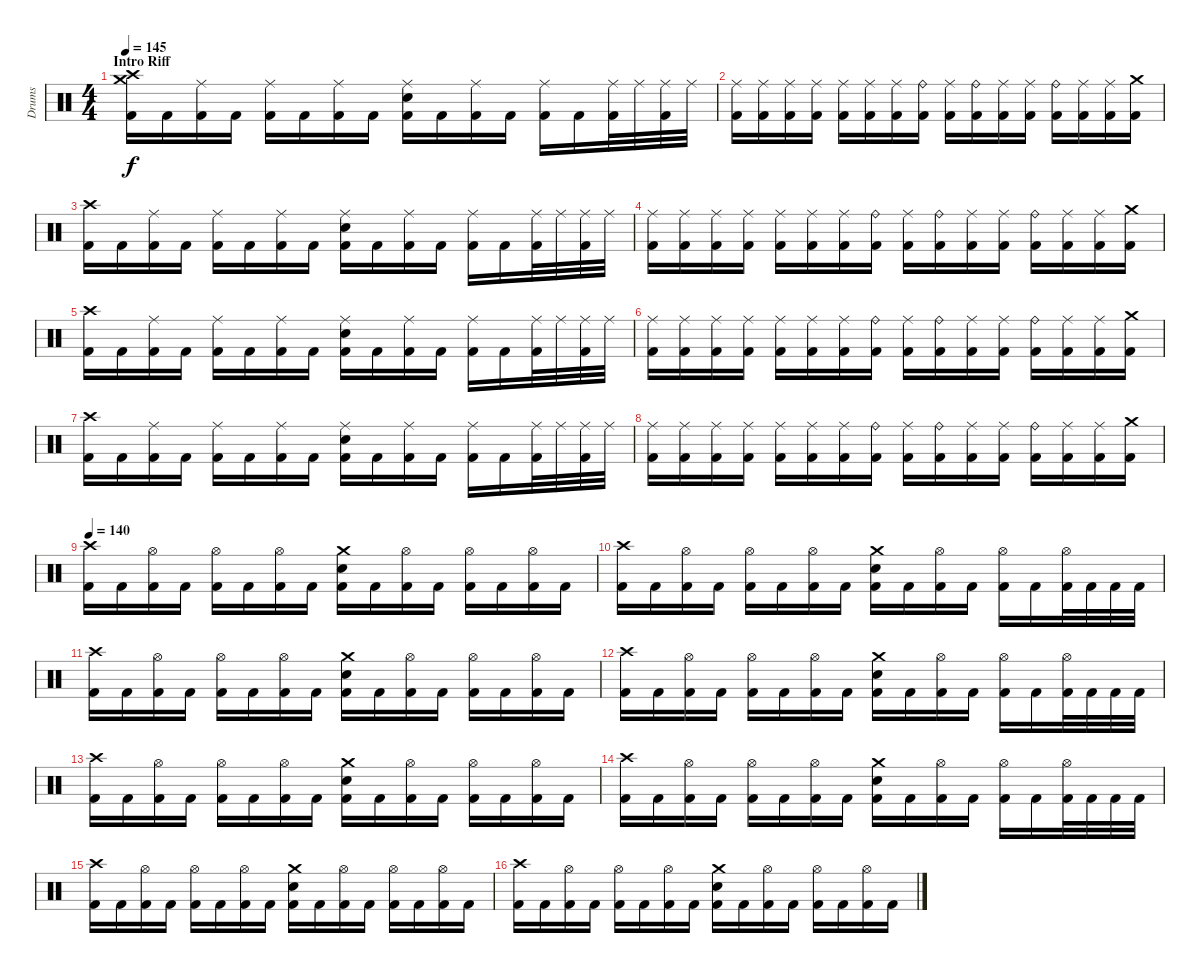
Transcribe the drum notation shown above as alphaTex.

\track ("Drums" "Drums") {instrument percussion}
\staff {score}
\articulation defaults
\ts (4 4)
\section ("" "Intro Riff")
\tempo 145
\clef neutral
\ks c
("Crash medium (hit)" "Crash high (hit)" "Kick (hit) 2").16{dy f} "Kick (hit) 2".16 ("Ride (middle)" "Kick (hit) 2").16 "Kick (hit) 2".16 ("Ride (middle)" "Kick (hit) 2").16 "Kick (hit) 2".16 ("Ride (middle)" "Kick (hit) 2").16 "Kick (hit) 2".16 ("Ride (middle)" "Electric Snare (hit)" "Kick (hit) 2").16 "Kick (hit) 2".16 ("Ride (middle)" "Kick (hit) 2").16 "Kick (hit) 2".16 ("Ride (middle)" "Kick (hit) 2").16 "Kick (hit) 2".16 ("Ride (middle)" "Kick (hit) 2").32 "Ride (middle)".32 ("Ride (middle)" "Kick (hit) 2").32 "Ride (middle)".32 |
("Ride (middle)" "Kick (hit) 2").16 ("Ride (middle)" "Kick (hit) 2").16 ("Ride (middle)" "Kick (hit) 2").16 ("Ride (middle)" "Kick (hit) 2").16 ("Ride (middle)" "Kick (hit) 2").16 ("Ride (middle)" "Kick (hit) 2").16 ("Ride (middle)" "Kick (hit) 2").16 ("Ride (bell)" "Kick (hit) 2").16 ("Ride (middle)" "Kick (hit) 2").16 ("Ride (bell)" "Kick (hit) 2").16 ("Ride (middle)" "Kick (hit) 2").16 ("Ride (middle)" "Kick (hit) 2").16 ("Ride (bell)" "Kick (hit) 2").16 ("Ride (middle)" "Kick (hit) 2").16 ("Ride (middle)" "Kick (hit) 2").16 ("Crash medium (hit)" "Kick (hit) 2").16 |
("Crash high (hit)" "Kick (hit) 2").16 "Kick (hit) 2".16 ("Ride (middle)" "Kick (hit) 2").16 "Kick (hit) 2".16 ("Ride (middle)" "Kick (hit) 2").16 "Kick (hit) 2".16 ("Ride (middle)" "Kick (hit) 2").16 "Kick (hit) 2".16 ("Ride (middle)" "Electric Snare (hit)" "Kick (hit) 2").16 "Kick (hit) 2".16 ("Ride (middle)" "Kick (hit) 2").16 "Kick (hit) 2".16 ("Ride (middle)" "Kick (hit) 2").16 "Kick (hit) 2".16 ("Ride (middle)" "Kick (hit) 2").32 "Ride (middle)".32 ("Ride (middle)" "Kick (hit) 2").32 "Ride (middle)".32 |
("Ride (middle)" "Kick (hit) 2").16 ("Ride (middle)" "Kick (hit) 2").16 ("Ride (middle)" "Kick (hit) 2").16 ("Ride (middle)" "Kick (hit) 2").16 ("Ride (middle)" "Kick (hit) 2").16 ("Ride (middle)" "Kick (hit) 2").16 ("Ride (middle)" "Kick (hit) 2").16 ("Ride (bell)" "Kick (hit) 2").16 ("Ride (middle)" "Kick (hit) 2").16 ("Ride (bell)" "Kick (hit) 2").16 ("Ride (middle)" "Kick (hit) 2").16 ("Ride (middle)" "Kick (hit) 2").16 ("Ride (bell)" "Kick (hit) 2").16 ("Ride (middle)" "Kick (hit) 2").16 ("Ride (middle)" "Kick (hit) 2").16 ("Crash medium (hit)" "Kick (hit) 2").16 |
("Crash high (hit)" "Kick (hit) 2").16 "Kick (hit) 2".16 ("Ride (middle)" "Kick (hit) 2").16 "Kick (hit) 2".16 ("Ride (middle)" "Kick (hit) 2").16 "Kick (hit) 2".16 ("Ride (middle)" "Kick (hit) 2").16 "Kick (hit) 2".16 ("Ride (middle)" "Electric Snare (hit)" "Kick (hit) 2").16 "Kick (hit) 2".16 ("Ride (middle)" "Kick (hit) 2").16 "Kick (hit) 2".16 ("Ride (middle)" "Kick (hit) 2").16 "Kick (hit) 2".16 ("Ride (middle)" "Kick (hit) 2").32 "Ride (middle)".32 ("Ride (middle)" "Kick (hit) 2").32 "Ride (middle)".32 |
("Ride (middle)" "Kick (hit) 2").16 ("Ride (middle)" "Kick (hit) 2").16 ("Ride (middle)" "Kick (hit) 2").16 ("Ride (middle)" "Kick (hit) 2").16 ("Ride (middle)" "Kick (hit) 2").16 ("Ride (middle)" "Kick (hit) 2").16 ("Ride (middle)" "Kick (hit) 2").16 ("Ride (bell)" "Kick (hit) 2").16 ("Ride (middle)" "Kick (hit) 2").16 ("Ride (bell)" "Kick (hit) 2").16 ("Ride (middle)" "Kick (hit) 2").16 ("Ride (middle)" "Kick (hit) 2").16 ("Ride (bell)" "Kick (hit) 2").16 ("Ride (middle)" "Kick (hit) 2").16 ("Ride (middle)" "Kick (hit) 2").16 ("Crash medium (hit)" "Kick (hit) 2").16 |
("Crash high (hit)" "Kick (hit) 2").16 "Kick (hit) 2".16 ("Ride (middle)" "Kick (hit) 2").16 "Kick (hit) 2".16 ("Ride (middle)" "Kick (hit) 2").16 "Kick (hit) 2".16 ("Ride (middle)" "Kick (hit) 2").16 "Kick (hit) 2".16 ("Ride (middle)" "Electric Snare (hit)" "Kick (hit) 2").16 "Kick (hit) 2".16 ("Ride (middle)" "Kick (hit) 2").16 "Kick (hit) 2".16 ("Ride (middle)" "Kick (hit) 2").16 "Kick (hit) 2".16 ("Ride (middle)" "Kick (hit) 2").32 "Ride (middle)".32 ("Ride (middle)" "Kick (hit) 2").32 "Ride (middle)".32 |
("Ride (middle)" "Kick (hit) 2").16 ("Ride (middle)" "Kick (hit) 2").16 ("Ride (middle)" "Kick (hit) 2").16 ("Ride (middle)" "Kick (hit) 2").16 ("Ride (middle)" "Kick (hit) 2").16 ("Ride (middle)" "Kick (hit) 2").16 ("Ride (middle)" "Kick (hit) 2").16 ("Ride (bell)" "Kick (hit) 2").16 ("Ride (middle)" "Kick (hit) 2").16 ("Ride (bell)" "Kick (hit) 2").16 ("Ride (middle)" "Kick (hit) 2").16 ("Ride (middle)" "Kick (hit) 2").16 ("Ride (bell)" "Kick (hit) 2").16 ("Ride (middle)" "Kick (hit) 2").16 ("Ride (middle)" "Kick (hit) 2").16 ("Crash medium (hit)" "Kick (hit) 2").16 |
\tempo 140
("Crash high (hit)" "Kick (hit) 2").16 "Kick (hit) 2".16 ("Hi-Hat (open)" "Kick (hit) 2").16 "Kick (hit) 2".16 ("Hi-Hat (open)" "Kick (hit) 2").16 "Kick (hit) 2".16 ("Hi-Hat (open)" "Kick (hit) 2").16 "Kick (hit) 2".16 ("Crash medium (hit)" "Electric Snare (hit)" "Kick (hit) 2").16 "Kick (hit) 2".16 ("Hi-Hat (open)" "Kick (hit) 2").16 "Kick (hit) 2".16 ("Hi-Hat (open)" "Kick (hit) 2").16 "Kick (hit) 2".16 ("Hi-Hat (open)" "Kick (hit) 2").16 "Kick (hit) 2".16 |
("Crash high (hit)" "Kick (hit) 2").16 "Kick (hit) 2".16 ("Hi-Hat (open)" "Kick (hit) 2").16 "Kick (hit) 2".16 ("Hi-Hat (open)" "Kick (hit) 2").16 "Kick (hit) 2".16 ("Hi-Hat (open)" "Kick (hit) 2").16 "Kick (hit) 2".16 ("Crash medium (hit)" "Electric Snare (hit)" "Kick (hit) 2").16 "Kick (hit) 2".16 ("Hi-Hat (open)" "Kick (hit) 2").16 "Kick (hit) 2".16 ("Hi-Hat (open)" "Kick (hit) 2").16 "Kick (hit) 2".16 ("Hi-Hat (open)" "Kick (hit) 2").32 "Kick (hit) 2".32 "Kick (hit) 2".32 "Kick (hit) 2".32 |
("Crash high (hit)" "Kick (hit) 2").16 "Kick (hit) 2".16 ("Hi-Hat (open)" "Kick (hit) 2").16 "Kick (hit) 2".16 ("Hi-Hat (open)" "Kick (hit) 2").16 "Kick (hit) 2".16 ("Hi-Hat (open)" "Kick (hit) 2").16 "Kick (hit) 2".16 ("Crash medium (hit)" "Electric Snare (hit)" "Kick (hit) 2").16 "Kick (hit) 2".16 ("Hi-Hat (open)" "Kick (hit) 2").16 "Kick (hit) 2".16 ("Hi-Hat (open)" "Kick (hit) 2").16 "Kick (hit) 2".16 ("Hi-Hat (open)" "Kick (hit) 2").16 "Kick (hit) 2".16 |
("Crash high (hit)" "Kick (hit) 2").16 "Kick (hit) 2".16 ("Hi-Hat (open)" "Kick (hit) 2").16 "Kick (hit) 2".16 ("Hi-Hat (open)" "Kick (hit) 2").16 "Kick (hit) 2".16 ("Hi-Hat (open)" "Kick (hit) 2").16 "Kick (hit) 2".16 ("Crash medium (hit)" "Electric Snare (hit)" "Kick (hit) 2").16 "Kick (hit) 2".16 ("Hi-Hat (open)" "Kick (hit) 2").16 "Kick (hit) 2".16 ("Hi-Hat (open)" "Kick (hit) 2").16 "Kick (hit) 2".16 ("Hi-Hat (open)" "Kick (hit) 2").32 "Kick (hit) 2".32 "Kick (hit) 2".32 "Kick (hit) 2".32 |
("Crash high (hit)" "Kick (hit) 2").16 "Kick (hit) 2".16 ("Hi-Hat (open)" "Kick (hit) 2").16 "Kick (hit) 2".16 ("Hi-Hat (open)" "Kick (hit) 2").16 "Kick (hit) 2".16 ("Hi-Hat (open)" "Kick (hit) 2").16 "Kick (hit) 2".16 ("Crash medium (hit)" "Electric Snare (hit)" "Kick (hit) 2").16 "Kick (hit) 2".16 ("Hi-Hat (open)" "Kick (hit) 2").16 "Kick (hit) 2".16 ("Hi-Hat (open)" "Kick (hit) 2").16 "Kick (hit) 2".16 ("Hi-Hat (open)" "Kick (hit) 2").16 "Kick (hit) 2".16 |
("Crash high (hit)" "Kick (hit) 2").16 "Kick (hit) 2".16 ("Hi-Hat (open)" "Kick (hit) 2").16 "Kick (hit) 2".16 ("Hi-Hat (open)" "Kick (hit) 2").16 "Kick (hit) 2".16 ("Hi-Hat (open)" "Kick (hit) 2").16 "Kick (hit) 2".16 ("Crash medium (hit)" "Electric Snare (hit)" "Kick (hit) 2").16 "Kick (hit) 2".16 ("Hi-Hat (open)" "Kick (hit) 2").16 "Kick (hit) 2".16 ("Hi-Hat (open)" "Kick (hit) 2").16 "Kick (hit) 2".16 ("Hi-Hat (open)" "Kick (hit) 2").32 "Kick (hit) 2".32 "Kick (hit) 2".32 "Kick (hit) 2".32 |
("Crash high (hit)" "Kick (hit) 2").16 "Kick (hit) 2".16 ("Hi-Hat (open)" "Kick (hit) 2").16 "Kick (hit) 2".16 ("Hi-Hat (open)" "Kick (hit) 2").16 "Kick (hit) 2".16 ("Hi-Hat (open)" "Kick (hit) 2").16 "Kick (hit) 2".16 ("Crash medium (hit)" "Electric Snare (hit)" "Kick (hit) 2").16 "Kick (hit) 2".16 ("Hi-Hat (open)" "Kick (hit) 2").16 "Kick (hit) 2".16 ("Hi-Hat (open)" "Kick (hit) 2").16 "Kick (hit) 2".16 ("Hi-Hat (open)" "Kick (hit) 2").16 "Kick (hit) 2".16 |
("Crash high (hit)" "Kick (hit) 2").16 "Kick (hit) 2".16 ("Hi-Hat (open)" "Kick (hit) 2").16 "Kick (hit) 2".16 ("Hi-Hat (open)" "Kick (hit) 2").16 "Kick (hit) 2".16 ("Hi-Hat (open)" "Kick (hit) 2").16 "Kick (hit) 2".16 ("Crash medium (hit)" "Electric Snare (hit)" "Kick (hit) 2").16 "Kick (hit) 2".16 ("Hi-Hat (open)" "Kick (hit) 2").16 "Kick (hit) 2".16 ("Hi-Hat (open)" "Kick (hit) 2").16 "Kick (hit) 2".16 ("Hi-Hat (open)" "Kick (hit) 2").16 "Kick (hit) 2".16
